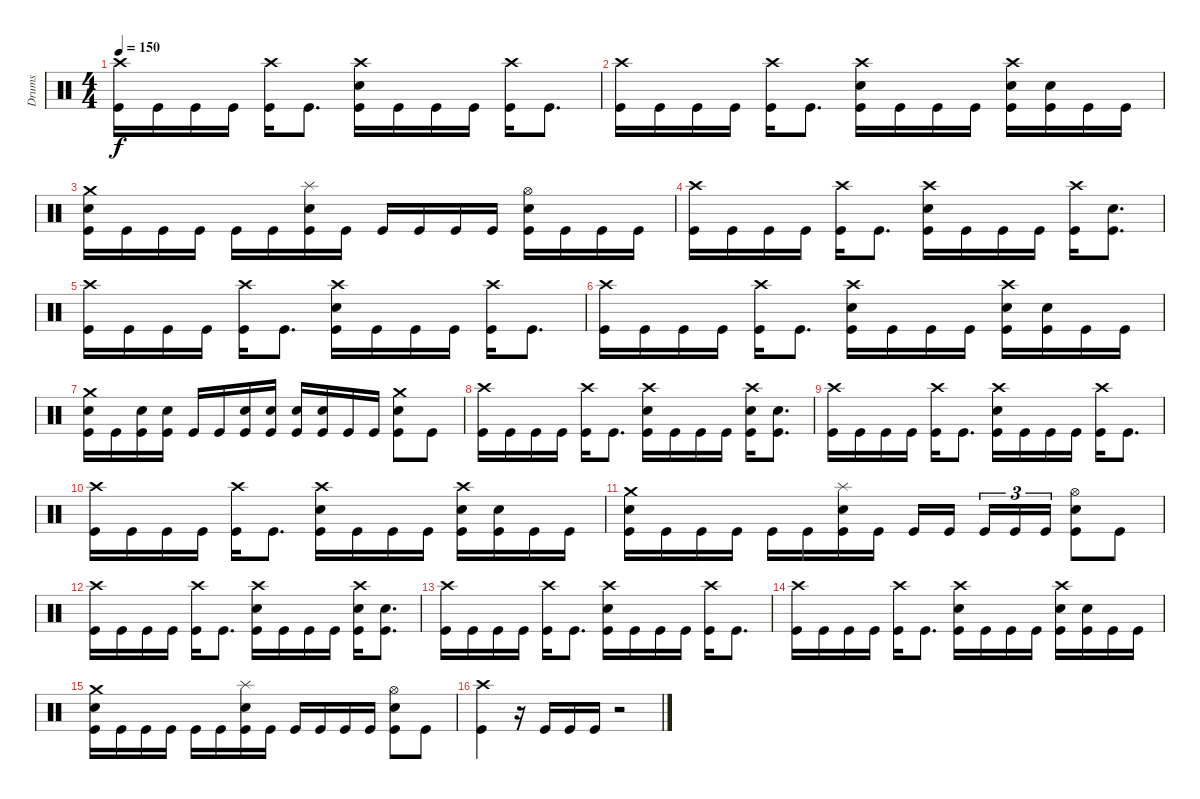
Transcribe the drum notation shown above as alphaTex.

\track ("Drums" "Drums") {instrument percussion}
\staff {score}
\articulation defaults
\ts (4 4)
\tempo 150
\clef neutral
\ks c
("Crash high (hit)" "Kick (hit)").16{dy f} "Kick (hit)".16 "Kick (hit)".16 "Kick (hit)".16 ("Crash high (hit)" "Kick (hit)").16 "Kick (hit)".8{d} ("Crash high (hit)" "Electric Snare (hit)" "Kick (hit)").16 "Kick (hit)".16 "Kick (hit)".16 "Kick (hit)".16 ("Crash high (hit)" "Kick (hit)").16 "Kick (hit)".8{d} |
("Crash high (hit)" "Kick (hit)").16 "Kick (hit)".16 "Kick (hit)".16 "Kick (hit)".16 ("Crash high (hit)" "Kick (hit)").16 "Kick (hit)".8{d} ("Crash high (hit)" "Electric Snare (hit)" "Kick (hit)").16 "Kick (hit)".16 "Kick (hit)".16 "Kick (hit)".16 ("Crash high (hit)" "Electric Snare (hit)" "Kick (hit)").16 ("Electric Snare (hit)" "Kick (hit)").16 "Kick (hit)".16 "Kick (hit)".16 |
("Crash medium (hit)" "Electric Snare (hit)" "Kick (hit)").16 "Kick (hit)".16 "Kick (hit)".16 "Kick (hit)".16 "Kick (hit)".16 "Kick (hit)".16 ("Splash (hit)" "Electric Snare (hit)" "Kick (hit)").16 "Kick (hit)".16 "Kick (hit)".16 "Kick (hit)".16 "Kick (hit)".16 "Kick (hit)".16 ("Hi-Hat (open)" "Electric Snare (hit)" "Kick (hit)").16 "Kick (hit)".16 "Kick (hit)".16 "Kick (hit)".16 |
("Crash high (hit)" "Kick (hit)").16 "Kick (hit)".16 "Kick (hit)".16 "Kick (hit)".16 ("Crash high (hit)" "Kick (hit)").16 "Kick (hit)".8{d} ("Crash high (hit)" "Electric Snare (hit)" "Kick (hit)").16 "Kick (hit)".16 "Kick (hit)".16 "Kick (hit)".16 ("Crash high (hit)" "Kick (hit)").16 ("Electric Snare (hit)" "Kick (hit)").8{d} |
("Crash high (hit)" "Kick (hit)").16 "Kick (hit)".16 "Kick (hit)".16 "Kick (hit)".16 ("Crash high (hit)" "Kick (hit)").16 "Kick (hit)".8{d} ("Crash high (hit)" "Electric Snare (hit)" "Kick (hit)").16 "Kick (hit)".16 "Kick (hit)".16 "Kick (hit)".16 ("Crash high (hit)" "Kick (hit)").16 "Kick (hit)".8{d} |
("Crash high (hit)" "Kick (hit)").16 "Kick (hit)".16 "Kick (hit)".16 "Kick (hit)".16 ("Crash high (hit)" "Kick (hit)").16 "Kick (hit)".8{d} ("Crash high (hit)" "Electric Snare (hit)" "Kick (hit)").16 "Kick (hit)".16 "Kick (hit)".16 "Kick (hit)".16 ("Crash high (hit)" "Electric Snare (hit)" "Kick (hit)").16 ("Electric Snare (hit)" "Kick (hit)").16 "Kick (hit)".16 "Kick (hit)".16 |
("Crash medium (hit)" "Electric Snare (hit)" "Kick (hit)").16 "Kick (hit)".16 ("Electric Snare (hit)" "Kick (hit)").16 ("Electric Snare (hit)" "Kick (hit)").16 "Kick (hit)".16 "Kick (hit)".16 ("Electric Snare (hit)" "Kick (hit)").16 ("Electric Snare (hit)" "Kick (hit)").16 ("Electric Snare (hit)" "Kick (hit)").16 ("Electric Snare (hit)" "Kick (hit)").16 "Kick (hit)".16 "Kick (hit)".16 ("Crash medium (hit)" "Electric Snare (hit)" "Kick (hit)").8 "Kick (hit)".8 |
("Crash high (hit)" "Kick (hit)").16 "Kick (hit)".16 "Kick (hit)".16 "Kick (hit)".16 ("Crash high (hit)" "Kick (hit)").16 "Kick (hit)".8{d} ("Crash high (hit)" "Electric Snare (hit)" "Kick (hit)").16 "Kick (hit)".16 "Kick (hit)".16 "Kick (hit)".16 ("Crash high (hit)" "Electric Snare (hit)" "Kick (hit)").16 ("Electric Snare (hit)" "Kick (hit)").8{d} |
("Crash high (hit)" "Kick (hit)").16 "Kick (hit)".16 "Kick (hit)".16 "Kick (hit)".16 ("Crash high (hit)" "Kick (hit)").16 "Kick (hit)".8{d} ("Crash high (hit)" "Electric Snare (hit)" "Kick (hit)").16 "Kick (hit)".16 "Kick (hit)".16 "Kick (hit)".16 ("Crash high (hit)" "Kick (hit)").16 "Kick (hit)".8{d} |
("Crash high (hit)" "Kick (hit)").16 "Kick (hit)".16 "Kick (hit)".16 "Kick (hit)".16 ("Crash high (hit)" "Kick (hit)").16 "Kick (hit)".8{d} ("Crash high (hit)" "Electric Snare (hit)" "Kick (hit)").16 "Kick (hit)".16 "Kick (hit)".16 "Kick (hit)".16 ("Crash high (hit)" "Electric Snare (hit)" "Kick (hit)").16 ("Electric Snare (hit)" "Kick (hit)").16 "Kick (hit)".16 "Kick (hit)".16 |
("Crash medium (hit)" "Electric Snare (hit)" "Kick (hit)").16 "Kick (hit)".16 "Kick (hit)".16 "Kick (hit)".16 "Kick (hit)".16 "Kick (hit)".16 ("Splash (hit)" "Electric Snare (hit)" "Kick (hit)").16 "Kick (hit)".16 "Kick (hit)".16 "Kick (hit)".16{beam splitsecondary} "Kick (hit)".16{tu (3 2)} "Kick (hit)".16{tu (3 2)} "Kick (hit)".16{tu (3 2)} ("Hi-Hat (open)" "Electric Snare (hit)" "Kick (hit)").8 "Kick (hit)".8 |
("Crash high (hit)" "Kick (hit)").16 "Kick (hit)".16 "Kick (hit)".16 "Kick (hit)".16 ("Crash high (hit)" "Kick (hit)").16 "Kick (hit)".8{d} ("Crash high (hit)" "Electric Snare (hit)" "Kick (hit)").16 "Kick (hit)".16 "Kick (hit)".16 "Kick (hit)".16 ("Crash high (hit)" "Electric Snare (hit)" "Kick (hit)").16 ("Electric Snare (hit)" "Kick (hit)").8{d} |
("Crash high (hit)" "Kick (hit)").16 "Kick (hit)".16 "Kick (hit)".16 "Kick (hit)".16 ("Crash high (hit)" "Kick (hit)").16 "Kick (hit)".8{d} ("Crash high (hit)" "Electric Snare (hit)" "Kick (hit)").16 "Kick (hit)".16 "Kick (hit)".16 "Kick (hit)".16 ("Crash high (hit)" "Kick (hit)").16 "Kick (hit)".8{d} |
("Crash high (hit)" "Kick (hit)").16 "Kick (hit)".16 "Kick (hit)".16 "Kick (hit)".16 ("Crash high (hit)" "Kick (hit)").16 "Kick (hit)".8{d} ("Crash high (hit)" "Electric Snare (hit)" "Kick (hit)").16 "Kick (hit)".16 "Kick (hit)".16 "Kick (hit)".16 ("Crash high (hit)" "Electric Snare (hit)" "Kick (hit)").16 ("Electric Snare (hit)" "Kick (hit)").16 "Kick (hit)".16 "Kick (hit)".16 |
("Crash medium (hit)" "Electric Snare (hit)" "Kick (hit)").16 "Kick (hit)".16 "Kick (hit)".16 "Kick (hit)".16 "Kick (hit)".16 "Kick (hit)".16 ("Splash (hit)" "Electric Snare (hit)" "Kick (hit)").16 "Kick (hit)".16 "Kick (hit)".16 "Kick (hit)".16 "Kick (hit)".16 "Kick (hit)".16 ("Hi-Hat (open)" "Electric Snare (hit)" "Kick (hit)").8 "Kick (hit)".8 |
("Crash high (hit)" "Kick (hit)").4 r.16 "Kick (hit)".16 "Kick (hit)".16 "Kick (hit)".16 r.2
